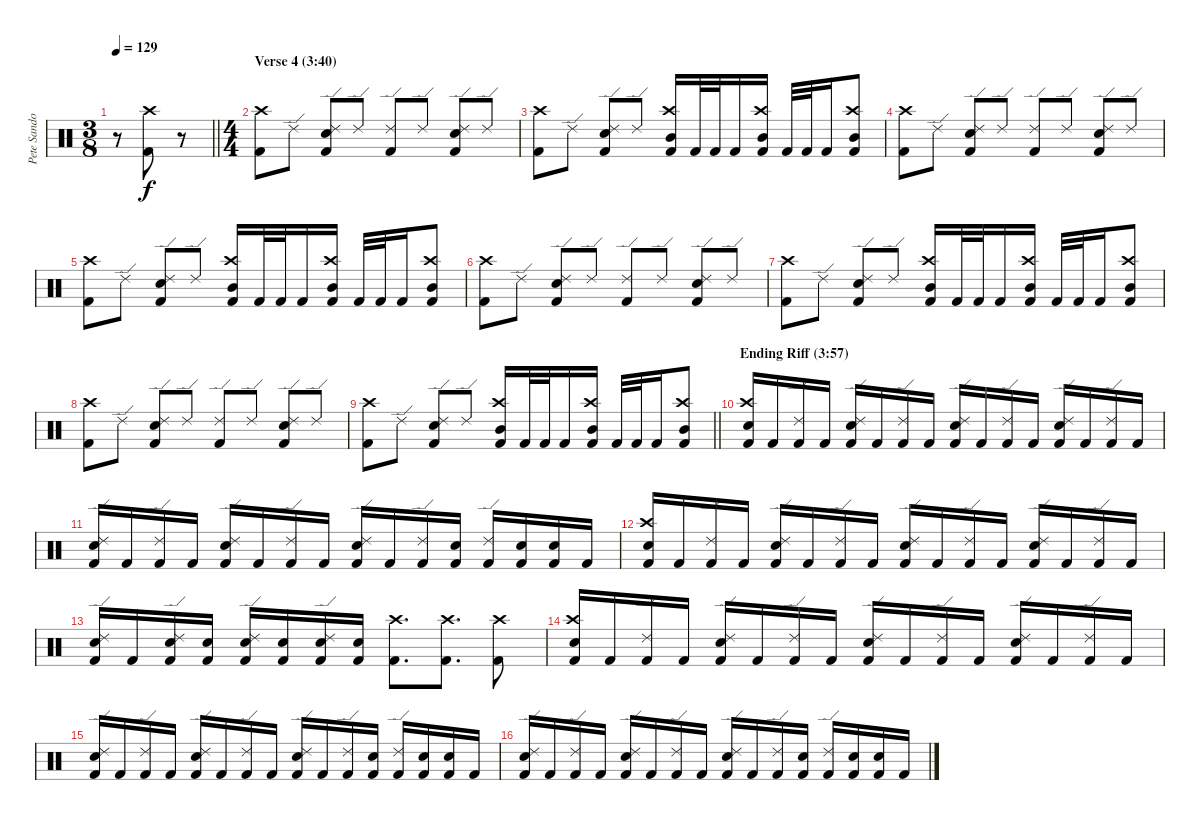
\track ("Pete Sandoval " "Pete Sando") {instrument percussion}
\staff {score}
\articulation defaults
\ts (3 8)
\tempo 129
\clef neutral
\barLineRight lightlight
\ks c
r.8{dy f} ("Kick (hit) 2" "Crash high (hit)").8 r.8 |
\ts (4 4)
\section ("" "Verse 4 (3:40)")
("Kick (hit) 2" "Crash high (hit)").8 "Ride (edge) 2".8 ("Kick (hit) 2" "Snare (hit) 2" "Ride (edge) 2").8 "Ride (edge) 2".8 ("Kick (hit) 2" "Ride (edge) 2").8 "Ride (edge) 2".8 ("Kick (hit) 2" "Snare (hit) 2" "Ride (edge) 2").8 "Ride (edge) 2".8 |
("Kick (hit) 2" "Crash high (hit)").8 "Ride (edge) 2".8 ("Kick (hit) 2" "Snare (hit) 2" "Ride (edge) 2").8 "Ride (edge) 2".8 ("Kick (hit) 2" "Mid Tom (hit)" "Crash high (hit)").16 "Kick (hit) 2".32 "Kick (hit) 2".32 "Kick (hit) 2".16 ("Kick (hit) 2" "Mid Tom (hit)" "Crash high (hit)").16 "Kick (hit) 2".32 "Kick (hit) 2".32 "Kick (hit) 2".16 ("Kick (hit) 2" "Mid Tom (hit)" "Crash high (hit)").8 |
("Kick (hit) 2" "Crash high (hit)").8 "Ride (edge) 2".8 ("Kick (hit) 2" "Snare (hit) 2" "Ride (edge) 2").8 "Ride (edge) 2".8 ("Kick (hit) 2" "Ride (edge) 2").8 "Ride (edge) 2".8 ("Kick (hit) 2" "Snare (hit) 2" "Ride (edge) 2").8 "Ride (edge) 2".8 |
("Kick (hit) 2" "Crash high (hit)").8 "Ride (edge) 2".8 ("Kick (hit) 2" "Snare (hit) 2" "Ride (edge) 2").8 "Ride (edge) 2".8 ("Kick (hit) 2" "Mid Tom (hit)" "Crash high (hit)").16 "Kick (hit) 2".32 "Kick (hit) 2".32 "Kick (hit) 2".16 ("Kick (hit) 2" "Mid Tom (hit)" "Crash high (hit)").16 "Kick (hit) 2".32 "Kick (hit) 2".32 "Kick (hit) 2".16 ("Kick (hit) 2" "Mid Tom (hit)" "Crash high (hit)").8 |
("Kick (hit) 2" "Crash high (hit)").8 "Ride (edge) 2".8 ("Kick (hit) 2" "Snare (hit) 2" "Ride (edge) 2").8 "Ride (edge) 2".8 ("Kick (hit) 2" "Ride (edge) 2").8 "Ride (edge) 2".8 ("Kick (hit) 2" "Snare (hit) 2" "Ride (edge) 2").8 "Ride (edge) 2".8 |
("Kick (hit) 2" "Crash high (hit)").8 "Ride (edge) 2".8 ("Kick (hit) 2" "Snare (hit) 2" "Ride (edge) 2").8 "Ride (edge) 2".8 ("Kick (hit) 2" "Mid Tom (hit)" "Crash high (hit)").16 "Kick (hit) 2".32 "Kick (hit) 2".32 "Kick (hit) 2".16 ("Kick (hit) 2" "Mid Tom (hit)" "Crash high (hit)").16 "Kick (hit) 2".32 "Kick (hit) 2".32 "Kick (hit) 2".16 ("Kick (hit) 2" "Mid Tom (hit)" "Crash high (hit)").8 |
("Kick (hit) 2" "Crash high (hit)").8 "Ride (edge) 2".8 ("Kick (hit) 2" "Snare (hit) 2" "Ride (edge) 2").8 "Ride (edge) 2".8 ("Kick (hit) 2" "Ride (edge) 2").8 "Ride (edge) 2".8 ("Kick (hit) 2" "Snare (hit) 2" "Ride (edge) 2").8 "Ride (edge) 2".8 |
\barLineRight lightlight
("Kick (hit) 2" "Crash high (hit)").8 "Ride (edge) 2".8 ("Kick (hit) 2" "Snare (hit) 2" "Ride (edge) 2").8 "Ride (edge) 2".8 ("Kick (hit) 2" "Mid Tom (hit)" "Crash high (hit)").16 "Kick (hit) 2".32 "Kick (hit) 2".32 "Kick (hit) 2".16 ("Kick (hit) 2" "Mid Tom (hit)" "Crash high (hit)").16 "Kick (hit) 2".32 "Kick (hit) 2".32 "Kick (hit) 2".16 ("Kick (hit) 2" "Mid Tom (hit)" "Crash high (hit)").8 |
\section ("" "Ending Riff (3:57)")
("Kick (hit) 2" "Snare (hit) 2" "Crash high (hit)").16 "Kick (hit) 2".16 ("Kick (hit) 2" "Ride (edge) 2").16 "Kick (hit) 2".16 ("Kick (hit) 2" "Snare (hit) 2" "Ride (edge) 2").16 "Kick (hit) 2".16 ("Kick (hit) 2" "Ride (edge) 2").16 "Kick (hit) 2".16 ("Kick (hit) 2" "Snare (hit) 2" "Ride (edge) 2").16 "Kick (hit) 2".16 ("Kick (hit) 2" "Ride (edge) 2").16 "Kick (hit) 2".16 ("Kick (hit) 2" "Snare (hit) 2" "Ride (edge) 2").16 "Kick (hit) 2".16 ("Kick (hit) 2" "Ride (edge) 2").16 "Kick (hit) 2".16 |
("Kick (hit) 2" "Snare (hit) 2" "Ride (edge) 2").16 "Kick (hit) 2".16 ("Kick (hit) 2" "Ride (edge) 2").16 "Kick (hit) 2".16 ("Kick (hit) 2" "Snare (hit) 2" "Ride (edge) 2").16 "Kick (hit) 2".16 ("Kick (hit) 2" "Ride (edge) 2").16 "Kick (hit) 2".16 ("Kick (hit) 2" "Snare (hit) 2" "Ride (edge) 2").16 "Kick (hit) 2".16 ("Kick (hit) 2" "Ride (edge) 2").16 ("Kick (hit) 2" "Snare (hit) 2").16 ("Kick (hit) 2" "Ride (edge) 2").16 ("Kick (hit) 2" "Snare (hit) 2").16 ("Kick (hit) 2" "Snare (hit) 2").16 "Kick (hit) 2".16 |
("Kick (hit) 2" "Snare (hit) 2" "Crash high (hit)").16 "Kick (hit) 2".16 ("Kick (hit) 2" "Ride (edge) 2").16 "Kick (hit) 2".16 ("Kick (hit) 2" "Snare (hit) 2" "Ride (edge) 2").16 "Kick (hit) 2".16 ("Kick (hit) 2" "Ride (edge) 2").16 "Kick (hit) 2".16 ("Kick (hit) 2" "Snare (hit) 2" "Ride (edge) 2").16 "Kick (hit) 2".16 ("Kick (hit) 2" "Ride (edge) 2").16 "Kick (hit) 2".16 ("Kick (hit) 2" "Snare (hit) 2" "Ride (edge) 2").16 "Kick (hit) 2".16 ("Kick (hit) 2" "Ride (edge) 2").16 "Kick (hit) 2".16 |
("Kick (hit) 2" "Snare (hit) 2" "Ride (edge) 2").16 "Kick (hit) 2".16 ("Kick (hit) 2" "Snare (hit) 2" "Ride (edge) 2").16 ("Kick (hit) 2" "Snare (hit) 2").16 ("Kick (hit) 2" "Snare (hit) 2" "Ride (edge) 2").16 ("Kick (hit) 2" "Snare (hit) 2").16 ("Kick (hit) 2" "Snare (hit) 2" "Ride (edge) 2").16 ("Kick (hit) 2" "Snare (hit) 2").16 ("Kick (hit) 2" "Crash high (hit)").8{d} ("Kick (hit) 2" "Crash high (hit)").8{d} ("Kick (hit) 2" "Crash high (hit)").8 |
("Kick (hit) 2" "Snare (hit) 2" "Crash high (hit)").16 "Kick (hit) 2".16 ("Kick (hit) 2" "Ride (edge) 2").16 "Kick (hit) 2".16 ("Kick (hit) 2" "Snare (hit) 2" "Ride (edge) 2").16 "Kick (hit) 2".16 ("Kick (hit) 2" "Ride (edge) 2").16 "Kick (hit) 2".16 ("Kick (hit) 2" "Snare (hit) 2" "Ride (edge) 2").16 "Kick (hit) 2".16 ("Kick (hit) 2" "Ride (edge) 2").16 "Kick (hit) 2".16 ("Kick (hit) 2" "Snare (hit) 2" "Ride (edge) 2").16 "Kick (hit) 2".16 ("Kick (hit) 2" "Ride (edge) 2").16 "Kick (hit) 2".16 |
("Kick (hit) 2" "Snare (hit) 2" "Ride (edge) 2").16 "Kick (hit) 2".16 ("Kick (hit) 2" "Ride (edge) 2").16 "Kick (hit) 2".16 ("Kick (hit) 2" "Snare (hit) 2" "Ride (edge) 2").16 "Kick (hit) 2".16 ("Kick (hit) 2" "Ride (edge) 2").16 "Kick (hit) 2".16 ("Kick (hit) 2" "Snare (hit) 2" "Ride (edge) 2").16 "Kick (hit) 2".16 ("Kick (hit) 2" "Ride (edge) 2").16 ("Kick (hit) 2" "Snare (hit) 2").16 ("Kick (hit) 2" "Ride (edge) 2").16 ("Kick (hit) 2" "Snare (hit) 2").16 ("Kick (hit) 2" "Snare (hit) 2").16 "Kick (hit) 2".16 |
("Kick (hit) 2" "Snare (hit) 2" "Ride (edge) 2").16 "Kick (hit) 2".16 ("Kick (hit) 2" "Ride (edge) 2").16 "Kick (hit) 2".16 ("Kick (hit) 2" "Snare (hit) 2" "Ride (edge) 2").16 "Kick (hit) 2".16 ("Kick (hit) 2" "Ride (edge) 2").16 "Kick (hit) 2".16 ("Kick (hit) 2" "Snare (hit) 2" "Ride (edge) 2").16 "Kick (hit) 2".16 ("Kick (hit) 2" "Ride (edge) 2").16 ("Kick (hit) 2" "Snare (hit) 2").16 ("Kick (hit) 2" "Ride (edge) 2").16 ("Kick (hit) 2" "Snare (hit) 2").16 ("Kick (hit) 2" "Snare (hit) 2").16 "Kick (hit) 2".16
